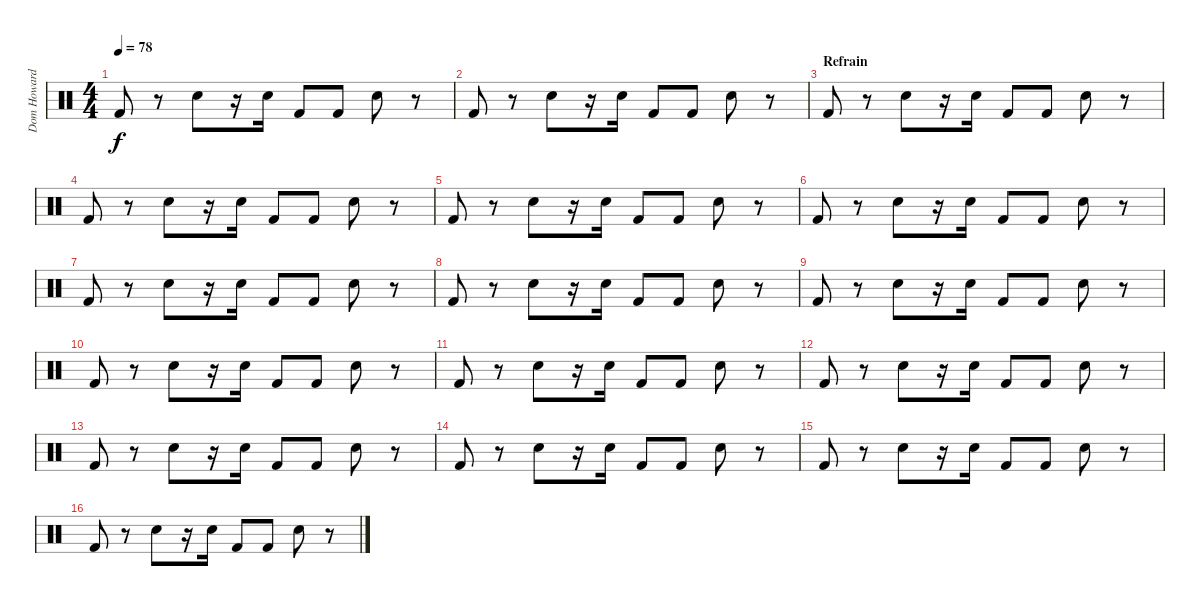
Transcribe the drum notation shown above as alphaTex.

\track ("Dom Howard" "Dom Howard") {instrument percussion}
\staff {score}
\articulation defaults
\ts (4 4)
\tempo 78
\clef neutral
\ks c "Kick (hit) 2".8{dy f}
r.8 "Electric Snare (hit)".8 r.16 "Electric Snare (hit)".16 "Kick (hit) 2".8 "Kick (hit) 2".8 "Electric Snare (hit)".8 r.8 |
"Kick (hit) 2".8 r.8 "Electric Snare (hit)".8 r.16 "Electric Snare (hit)".16 "Kick (hit) 2".8 "Kick (hit) 2".8 "Electric Snare (hit)".8 r.8 |
\section ("" "Refrain")
"Kick (hit) 2".8 r.8 "Electric Snare (hit)".8 r.16 "Electric Snare (hit)".16 "Kick (hit) 2".8 "Kick (hit) 2".8 "Electric Snare (hit)".8 r.8 |
"Kick (hit) 2".8 r.8 "Electric Snare (hit)".8 r.16 "Electric Snare (hit)".16 "Kick (hit) 2".8 "Kick (hit) 2".8 "Electric Snare (hit)".8 r.8 |
"Kick (hit) 2".8 r.8 "Electric Snare (hit)".8 r.16 "Electric Snare (hit)".16 "Kick (hit) 2".8 "Kick (hit) 2".8 "Electric Snare (hit)".8 r.8 |
"Kick (hit) 2".8 r.8 "Electric Snare (hit)".8 r.16 "Electric Snare (hit)".16 "Kick (hit) 2".8 "Kick (hit) 2".8 "Electric Snare (hit)".8 r.8 |
"Kick (hit) 2".8 r.8 "Electric Snare (hit)".8 r.16 "Electric Snare (hit)".16 "Kick (hit) 2".8 "Kick (hit) 2".8 "Electric Snare (hit)".8 r.8 |
"Kick (hit) 2".8 r.8 "Electric Snare (hit)".8 r.16 "Electric Snare (hit)".16 "Kick (hit) 2".8 "Kick (hit) 2".8 "Electric Snare (hit)".8 r.8 |
"Kick (hit) 2".8 r.8 "Electric Snare (hit)".8 r.16 "Electric Snare (hit)".16 "Kick (hit) 2".8 "Kick (hit) 2".8 "Electric Snare (hit)".8 r.8 |
"Kick (hit) 2".8 r.8 "Electric Snare (hit)".8 r.16 "Electric Snare (hit)".16 "Kick (hit) 2".8 "Kick (hit) 2".8 "Electric Snare (hit)".8 r.8 |
"Kick (hit) 2".8 r.8 "Electric Snare (hit)".8 r.16 "Electric Snare (hit)".16 "Kick (hit) 2".8 "Kick (hit) 2".8 "Electric Snare (hit)".8 r.8 |
"Kick (hit) 2".8 r.8 "Electric Snare (hit)".8 r.16 "Electric Snare (hit)".16 "Kick (hit) 2".8 "Kick (hit) 2".8 "Electric Snare (hit)".8 r.8 |
"Kick (hit) 2".8 r.8 "Electric Snare (hit)".8 r.16 "Electric Snare (hit)".16 "Kick (hit) 2".8 "Kick (hit) 2".8 "Electric Snare (hit)".8 r.8 |
"Kick (hit) 2".8 r.8 "Electric Snare (hit)".8 r.16 "Electric Snare (hit)".16 "Kick (hit) 2".8 "Kick (hit) 2".8 "Electric Snare (hit)".8 r.8 |
"Kick (hit) 2".8 r.8 "Electric Snare (hit)".8 r.16 "Electric Snare (hit)".16 "Kick (hit) 2".8 "Kick (hit) 2".8 "Electric Snare (hit)".8 r.8 |
"Kick (hit) 2".8 r.8 "Electric Snare (hit)".8 r.16 "Electric Snare (hit)".16 "Kick (hit) 2".8 "Kick (hit) 2".8 "Electric Snare (hit)".8 r.8
